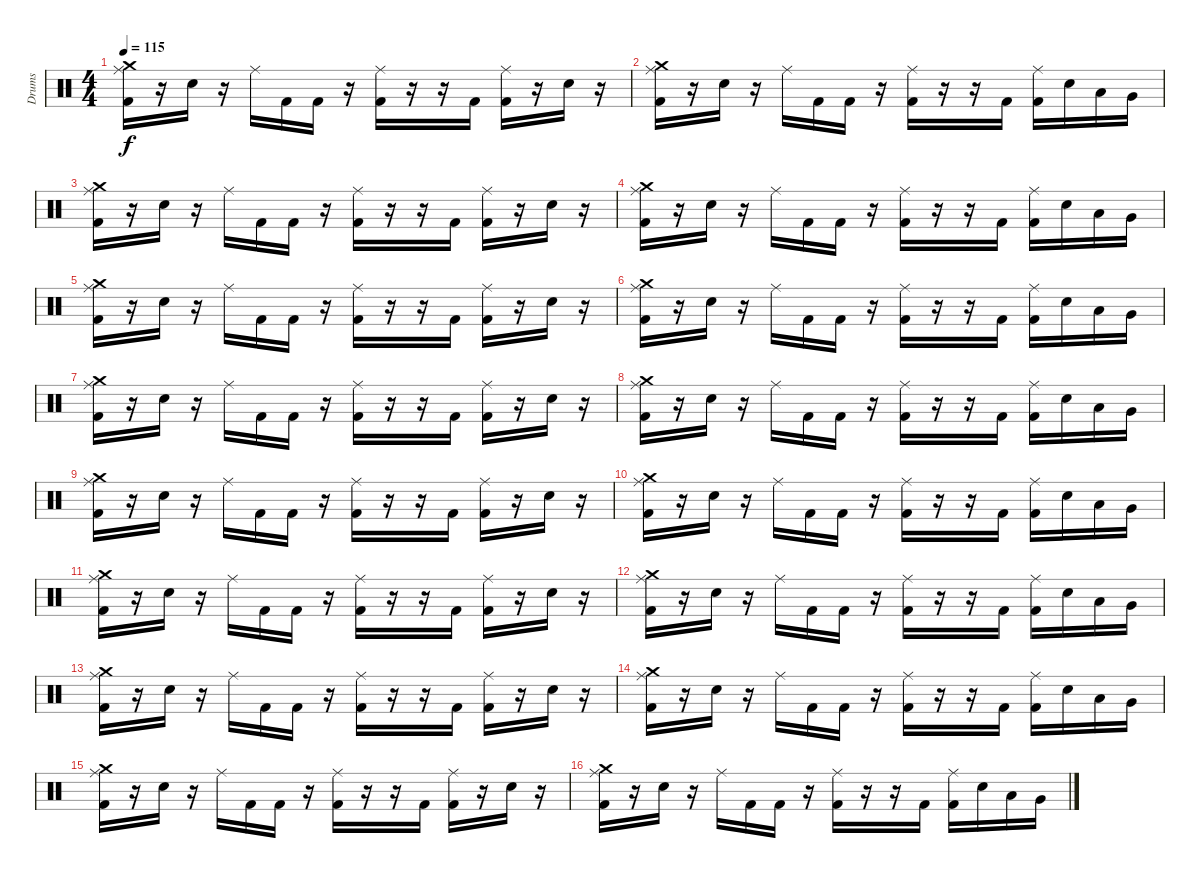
\track ("Drums" "Drums") {instrument percussion}
\staff {score}
\articulation defaults
\ts (4 4)
\tempo 115
\clef neutral
\ks c
("Crash medium (hit)" "Ride (middle)" "Kick (hit) 2").16{dy f} r.16 "Electric Snare (hit)".16 r.16 "Ride (middle)".16 "Kick (hit) 2".16 "Kick (hit) 2".16 r.16 ("Ride (middle)" "Kick (hit) 2").16 r.16 r.16 "Kick (hit) 2".16 ("Ride (middle)" "Kick (hit) 2").16 r.16 "Electric Snare (hit)".16 r.16 |
("Crash medium (hit)" "Ride (middle)" "Kick (hit) 2").16 r.16 "Electric Snare (hit)".16 r.16 "Ride (middle)".16 "Kick (hit) 2".16 "Kick (hit) 2".16 r.16 ("Ride (middle)" "Kick (hit) 2").16 r.16 r.16 "Kick (hit) 2".16 ("Ride (middle)" "Kick (hit) 2").16 "Electric Snare (hit)".16 "Low Tom (hit)".16 "Very Low Tom (hit)".16 |
("Crash medium (hit)" "Ride (middle)" "Kick (hit) 2").16 r.16 "Electric Snare (hit)".16 r.16 "Ride (middle)".16 "Kick (hit) 2".16 "Kick (hit) 2".16 r.16 ("Ride (middle)" "Kick (hit) 2").16 r.16 r.16 "Kick (hit) 2".16 ("Ride (middle)" "Kick (hit) 2").16 r.16 "Electric Snare (hit)".16 r.16 |
("Crash medium (hit)" "Ride (middle)" "Kick (hit) 2").16 r.16 "Electric Snare (hit)".16 r.16 "Ride (middle)".16 "Kick (hit) 2".16 "Kick (hit) 2".16 r.16 ("Ride (middle)" "Kick (hit) 2").16 r.16 r.16 "Kick (hit) 2".16 ("Ride (middle)" "Kick (hit) 2").16 "Electric Snare (hit)".16 "Low Tom (hit)".16 "Very Low Tom (hit)".16 |
("Crash medium (hit)" "Ride (middle)" "Kick (hit) 2").16 r.16 "Electric Snare (hit)".16 r.16 "Ride (middle)".16 "Kick (hit) 2".16 "Kick (hit) 2".16 r.16 ("Ride (middle)" "Kick (hit) 2").16 r.16 r.16 "Kick (hit) 2".16 ("Ride (middle)" "Kick (hit) 2").16 r.16 "Electric Snare (hit)".16 r.16 |
("Crash medium (hit)" "Ride (middle)" "Kick (hit) 2").16 r.16 "Electric Snare (hit)".16 r.16 "Ride (middle)".16 "Kick (hit) 2".16 "Kick (hit) 2".16 r.16 ("Ride (middle)" "Kick (hit) 2").16 r.16 r.16 "Kick (hit) 2".16 ("Ride (middle)" "Kick (hit) 2").16 "Electric Snare (hit)".16 "Low Tom (hit)".16 "Very Low Tom (hit)".16 |
("Crash medium (hit)" "Ride (middle)" "Kick (hit) 2").16 r.16 "Electric Snare (hit)".16 r.16 "Ride (middle)".16 "Kick (hit) 2".16 "Kick (hit) 2".16 r.16 ("Ride (middle)" "Kick (hit) 2").16 r.16 r.16 "Kick (hit) 2".16 ("Ride (middle)" "Kick (hit) 2").16 r.16 "Electric Snare (hit)".16 r.16 |
("Crash medium (hit)" "Ride (middle)" "Kick (hit) 2").16 r.16 "Electric Snare (hit)".16 r.16 "Ride (middle)".16 "Kick (hit) 2".16 "Kick (hit) 2".16 r.16 ("Ride (middle)" "Kick (hit) 2").16 r.16 r.16 "Kick (hit) 2".16 ("Ride (middle)" "Kick (hit) 2").16 "Electric Snare (hit)".16 "Low Tom (hit)".16 "Very Low Tom (hit)".16 |
("Crash medium (hit)" "Ride (middle)" "Kick (hit) 2").16 r.16 "Electric Snare (hit)".16 r.16 "Ride (middle)".16 "Kick (hit) 2".16 "Kick (hit) 2".16 r.16 ("Ride (middle)" "Kick (hit) 2").16 r.16 r.16 "Kick (hit) 2".16 ("Ride (middle)" "Kick (hit) 2").16 r.16 "Electric Snare (hit)".16 r.16 |
("Crash medium (hit)" "Ride (middle)" "Kick (hit) 2").16 r.16 "Electric Snare (hit)".16 r.16 "Ride (middle)".16 "Kick (hit) 2".16 "Kick (hit) 2".16 r.16 ("Ride (middle)" "Kick (hit) 2").16 r.16 r.16 "Kick (hit) 2".16 ("Ride (middle)" "Kick (hit) 2").16 "Electric Snare (hit)".16 "Low Tom (hit)".16 "Very Low Tom (hit)".16 |
("Crash medium (hit)" "Ride (middle)" "Kick (hit) 2").16 r.16 "Electric Snare (hit)".16 r.16 "Ride (middle)".16 "Kick (hit) 2".16 "Kick (hit) 2".16 r.16 ("Ride (middle)" "Kick (hit) 2").16 r.16 r.16 "Kick (hit) 2".16 ("Ride (middle)" "Kick (hit) 2").16 r.16 "Electric Snare (hit)".16 r.16 |
("Crash medium (hit)" "Ride (middle)" "Kick (hit) 2").16 r.16 "Electric Snare (hit)".16 r.16 "Ride (middle)".16 "Kick (hit) 2".16 "Kick (hit) 2".16 r.16 ("Ride (middle)" "Kick (hit) 2").16 r.16 r.16 "Kick (hit) 2".16 ("Ride (middle)" "Kick (hit) 2").16 "Electric Snare (hit)".16 "Low Tom (hit)".16 "Very Low Tom (hit)".16 |
("Crash medium (hit)" "Ride (middle)" "Kick (hit) 2").16 r.16 "Electric Snare (hit)".16 r.16 "Ride (middle)".16 "Kick (hit) 2".16 "Kick (hit) 2".16 r.16 ("Ride (middle)" "Kick (hit) 2").16 r.16 r.16 "Kick (hit) 2".16 ("Ride (middle)" "Kick (hit) 2").16 r.16 "Electric Snare (hit)".16 r.16 |
("Crash medium (hit)" "Ride (middle)" "Kick (hit) 2").16 r.16 "Electric Snare (hit)".16 r.16 "Ride (middle)".16 "Kick (hit) 2".16 "Kick (hit) 2".16 r.16 ("Ride (middle)" "Kick (hit) 2").16 r.16 r.16 "Kick (hit) 2".16 ("Ride (middle)" "Kick (hit) 2").16 "Electric Snare (hit)".16 "Low Tom (hit)".16 "Very Low Tom (hit)".16 |
("Crash medium (hit)" "Ride (middle)" "Kick (hit) 2").16 r.16 "Electric Snare (hit)".16 r.16 "Ride (middle)".16 "Kick (hit) 2".16 "Kick (hit) 2".16 r.16 ("Ride (middle)" "Kick (hit) 2").16 r.16 r.16 "Kick (hit) 2".16 ("Ride (middle)" "Kick (hit) 2").16 r.16 "Electric Snare (hit)".16 r.16 |
("Crash medium (hit)" "Ride (middle)" "Kick (hit) 2").16 r.16 "Electric Snare (hit)".16 r.16 "Ride (middle)".16 "Kick (hit) 2".16 "Kick (hit) 2".16 r.16 ("Ride (middle)" "Kick (hit) 2").16 r.16 r.16 "Kick (hit) 2".16 ("Ride (middle)" "Kick (hit) 2").16 "Electric Snare (hit)".16 "Low Tom (hit)".16 "Very Low Tom (hit)".16
